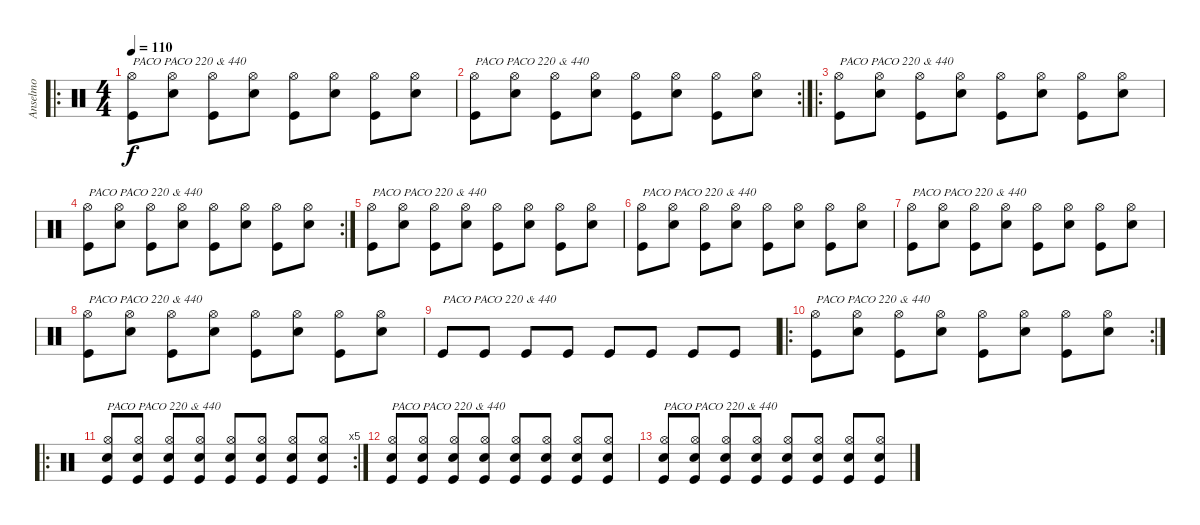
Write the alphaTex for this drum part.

\track ("Anselmo" "Anselmo") {instrument percussion}
\staff {score}
\articulation defaults
\ro
\ts (4 4)
\tempo 110
\clef neutral
\ks c
("Kick (hit)" "Hi-Hat (open)").8{txt "PACO PACO 220 & 440" dy f} ("Electric Snare (hit)" "Hi-Hat (open)").8 ("Kick (hit)" "Hi-Hat (open)").8 ("Electric Snare (hit)" "Hi-Hat (open)").8 ("Kick (hit)" "Hi-Hat (open)").8 ("Electric Snare (hit)" "Hi-Hat (open)").8 ("Kick (hit)" "Hi-Hat (open)").8 ("Electric Snare (hit)" "Hi-Hat (open)").8 |
\rc 2
("Kick (hit)" "Hi-Hat (open)").8{txt "PACO PACO 220 & 440"} ("Electric Snare (hit)" "Hi-Hat (open)").8 ("Kick (hit)" "Hi-Hat (open)").8 ("Electric Snare (hit)" "Hi-Hat (open)").8 ("Kick (hit)" "Hi-Hat (open)").8 ("Electric Snare (hit)" "Hi-Hat (open)").8 ("Kick (hit)" "Hi-Hat (open)").8 ("Electric Snare (hit)" "Hi-Hat (open)").8 |
\ro
("Kick (hit)" "Hi-Hat (open)").8{txt "PACO PACO 220 & 440"} ("Electric Snare (hit)" "Hi-Hat (open)").8 ("Kick (hit)" "Hi-Hat (open)").8 ("Electric Snare (hit)" "Hi-Hat (open)").8 ("Kick (hit)" "Hi-Hat (open)").8 ("Electric Snare (hit)" "Hi-Hat (open)").8 ("Kick (hit)" "Hi-Hat (open)").8 ("Electric Snare (hit)" "Hi-Hat (open)").8 |
\rc 2
("Kick (hit)" "Hi-Hat (open)").8{txt "PACO PACO 220 & 440"} ("Electric Snare (hit)" "Hi-Hat (open)").8 ("Kick (hit)" "Hi-Hat (open)").8 ("Electric Snare (hit)" "Hi-Hat (open)").8 ("Kick (hit)" "Hi-Hat (open)").8 ("Electric Snare (hit)" "Hi-Hat (open)").8 ("Kick (hit)" "Hi-Hat (open)").8 ("Electric Snare (hit)" "Hi-Hat (open)").8 |
("Kick (hit)" "Hi-Hat (open)").8{txt "PACO PACO 220 & 440"} ("Electric Snare (hit)" "Hi-Hat (open)").8 ("Kick (hit)" "Hi-Hat (open)").8 ("Electric Snare (hit)" "Hi-Hat (open)").8 ("Kick (hit)" "Hi-Hat (open)").8 ("Electric Snare (hit)" "Hi-Hat (open)").8 ("Kick (hit)" "Hi-Hat (open)").8 ("Electric Snare (hit)" "Hi-Hat (open)").8 |
("Kick (hit)" "Hi-Hat (open)").8{txt "PACO PACO 220 & 440"} ("Electric Snare (hit)" "Hi-Hat (open)").8 ("Kick (hit)" "Hi-Hat (open)").8 ("Electric Snare (hit)" "Hi-Hat (open)").8 ("Kick (hit)" "Hi-Hat (open)").8 ("Electric Snare (hit)" "Hi-Hat (open)").8 ("Kick (hit)" "Hi-Hat (open)").8 ("Electric Snare (hit)" "Hi-Hat (open)").8 |
("Kick (hit)" "Hi-Hat (open)").8{txt "PACO PACO 220 & 440"} ("Electric Snare (hit)" "Hi-Hat (open)").8 ("Kick (hit)" "Hi-Hat (open)").8 ("Electric Snare (hit)" "Hi-Hat (open)").8 ("Kick (hit)" "Hi-Hat (open)").8 ("Electric Snare (hit)" "Hi-Hat (open)").8 ("Kick (hit)" "Hi-Hat (open)").8 ("Electric Snare (hit)" "Hi-Hat (open)").8 |
("Kick (hit)" "Hi-Hat (open)").8{txt "PACO PACO 220 & 440"} ("Electric Snare (hit)" "Hi-Hat (open)").8 ("Kick (hit)" "Hi-Hat (open)").8 ("Electric Snare (hit)" "Hi-Hat (open)").8 ("Kick (hit)" "Hi-Hat (open)").8 ("Electric Snare (hit)" "Hi-Hat (open)").8 ("Kick (hit)" "Hi-Hat (open)").8 ("Electric Snare (hit)" "Hi-Hat (open)").8 |
"Kick (hit)".8{txt "PACO PACO 220 & 440"} "Kick (hit)".8 "Kick (hit)".8 "Kick (hit)".8 "Kick (hit)".8 "Kick (hit)".8 "Kick (hit)".8 "Kick (hit)".8 |
\ro
\rc 2
("Kick (hit)" "Hi-Hat (open)").8{txt "PACO PACO 220 & 440"} ("Electric Snare (hit)" "Hi-Hat (open)").8 ("Kick (hit)" "Hi-Hat (open)").8 ("Electric Snare (hit)" "Hi-Hat (open)").8 ("Kick (hit)" "Hi-Hat (open)").8 ("Electric Snare (hit)" "Hi-Hat (open)").8 ("Kick (hit)" "Hi-Hat (open)").8 ("Electric Snare (hit)" "Hi-Hat (open)").8 |
\ro
\rc 5
("Kick (hit)" "Electric Snare (hit)" "Hi-Hat (open)").8{txt "PACO PACO 220 & 440"} ("Kick (hit)" "Electric Snare (hit)" "Hi-Hat (open)").8 ("Kick (hit)" "Electric Snare (hit)" "Hi-Hat (open)").8 ("Kick (hit)" "Electric Snare (hit)" "Hi-Hat (open)").8 ("Kick (hit)" "Electric Snare (hit)" "Hi-Hat (open)").8 ("Kick (hit)" "Electric Snare (hit)" "Hi-Hat (open)").8 ("Kick (hit)" "Electric Snare (hit)" "Hi-Hat (open)").8 ("Kick (hit)" "Electric Snare (hit)" "Hi-Hat (open)").8 |
("Kick (hit)" "Electric Snare (hit)" "Hi-Hat (open)").8{txt "PACO PACO 220 & 440"} ("Kick (hit)" "Electric Snare (hit)" "Hi-Hat (open)").8 ("Kick (hit)" "Electric Snare (hit)" "Hi-Hat (open)").8 ("Kick (hit)" "Electric Snare (hit)" "Hi-Hat (open)").8 ("Kick (hit)" "Electric Snare (hit)" "Hi-Hat (open)").8 ("Kick (hit)" "Electric Snare (hit)" "Hi-Hat (open)").8 ("Kick (hit)" "Electric Snare (hit)" "Hi-Hat (open)").8 ("Kick (hit)" "Electric Snare (hit)" "Hi-Hat (open)").8 |
("Kick (hit)" "Electric Snare (hit)" "Hi-Hat (open)").8{txt "PACO PACO 220 & 440"} ("Kick (hit)" "Electric Snare (hit)" "Hi-Hat (open)").8 ("Kick (hit)" "Electric Snare (hit)" "Hi-Hat (open)").8 ("Kick (hit)" "Electric Snare (hit)" "Hi-Hat (open)").8 ("Kick (hit)" "Electric Snare (hit)" "Hi-Hat (open)").8 ("Kick (hit)" "Electric Snare (hit)" "Hi-Hat (open)").8 ("Kick (hit)" "Electric Snare (hit)" "Hi-Hat (open)").8 ("Kick (hit)" "Electric Snare (hit)" "Hi-Hat (open)").8
